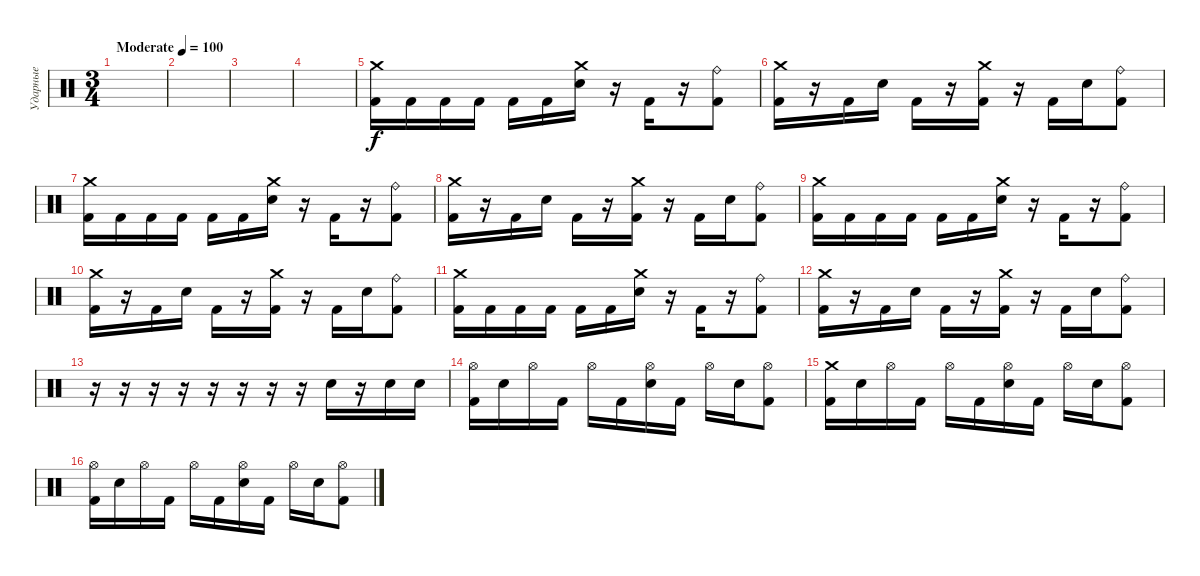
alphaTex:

\track ("Ударные" "Ударные") {instrument percussion}
\staff {score}
\articulation defaults
\ts (3 4)
\tempo (100 "Moderate")
\clef neutral
\ks c
|
|
|
|
("Crash medium (hit)" "Kick (hit) 2").16 "Kick (hit) 2".16 "Kick (hit) 2".16 "Kick (hit) 2".16 "Kick (hit) 2".16 "Kick (hit) 2".16 ("Crash medium (hit)" "Electric Snare (hit)").16 r.16 "Kick (hit) 2".16 r.16 ("Ride (bell)" "Kick (hit) 2").8 |
("Crash medium (hit)" "Kick (hit) 2").16 r.16 "Kick (hit) 2".16 "Electric Snare (hit)".16 "Kick (hit) 2".16 r.16 ("Crash medium (hit)" "Kick (hit) 2").16 r.16 "Kick (hit) 2".16 "Electric Snare (hit)".16 ("Ride (bell)" "Kick (hit) 2").8 |
("Crash medium (hit)" "Kick (hit) 2").16 "Kick (hit) 2".16 "Kick (hit) 2".16 "Kick (hit) 2".16 "Kick (hit) 2".16 "Kick (hit) 2".16 ("Crash medium (hit)" "Electric Snare (hit)").16 r.16 "Kick (hit) 2".16 r.16 ("Ride (bell)" "Kick (hit) 2").8 |
("Crash medium (hit)" "Kick (hit) 2").16 r.16 "Kick (hit) 2".16 "Electric Snare (hit)".16 "Kick (hit) 2".16 r.16 ("Crash medium (hit)" "Kick (hit) 2").16 r.16 "Kick (hit) 2".16 "Electric Snare (hit)".16 ("Ride (bell)" "Kick (hit) 2").8 |
("Crash medium (hit)" "Kick (hit) 2").16 "Kick (hit) 2".16 "Kick (hit) 2".16 "Kick (hit) 2".16 "Kick (hit) 2".16 "Kick (hit) 2".16 ("Crash medium (hit)" "Electric Snare (hit)").16 r.16 "Kick (hit) 2".16 r.16 ("Ride (bell)" "Kick (hit) 2").8 |
("Crash medium (hit)" "Kick (hit) 2").16 r.16 "Kick (hit) 2".16 "Electric Snare (hit)".16 "Kick (hit) 2".16 r.16 ("Crash medium (hit)" "Kick (hit) 2").16 r.16 "Kick (hit) 2".16 "Electric Snare (hit)".16 ("Ride (bell)" "Kick (hit) 2").8 |
("Crash medium (hit)" "Kick (hit) 2").16 "Kick (hit) 2".16 "Kick (hit) 2".16 "Kick (hit) 2".16 "Kick (hit) 2".16 "Kick (hit) 2".16 ("Crash medium (hit)" "Electric Snare (hit)").16 r.16 "Kick (hit) 2".16 r.16 ("Ride (bell)" "Kick (hit) 2").8 |
("Crash medium (hit)" "Kick (hit) 2").16 r.16 "Kick (hit) 2".16 "Electric Snare (hit)".16 "Kick (hit) 2".16 r.16 ("Crash medium (hit)" "Kick (hit) 2").16 r.16 "Kick (hit) 2".16 "Electric Snare (hit)".16 ("Ride (bell)" "Kick (hit) 2").8 |
r.16 r.16 r.16 r.16 r.16 r.16 r.16 r.16 "Electric Snare (hit)".16 r.16 "Electric Snare (hit)".16 "Electric Snare (hit)".16 |
("Hi-Hat (open)" "Kick (hit) 2").16 "Electric Snare (hit)".16 "Hi-Hat (open)".16 "Kick (hit) 2".16 "Hi-Hat (open)".16 "Kick (hit) 2".16 ("Hi-Hat (open)" "Electric Snare (hit)").16 "Kick (hit) 2".16 "Hi-Hat (open)".16 "Electric Snare (hit)".16 ("Hi-Hat (open)" "Kick (hit) 2").8 |
("Crash medium (hit)" "Kick (hit) 2").16 "Electric Snare (hit)".16 "Hi-Hat (open)".16 "Kick (hit) 2".16 "Hi-Hat (open)".16 "Kick (hit) 2".16 ("Hi-Hat (open)" "Electric Snare (hit)").16 "Kick (hit) 2".16 "Hi-Hat (open)".16 "Electric Snare (hit)".16 ("Hi-Hat (open)" "Kick (hit) 2").8 |
("Hi-Hat (open)" "Kick (hit) 2").16 "Electric Snare (hit)".16 "Hi-Hat (open)".16 "Kick (hit) 2".16 "Hi-Hat (open)".16 "Kick (hit) 2".16 ("Hi-Hat (open)" "Electric Snare (hit)").16 "Kick (hit) 2".16 "Hi-Hat (open)".16 "Electric Snare (hit)".16 ("Hi-Hat (open)" "Kick (hit) 2").8
